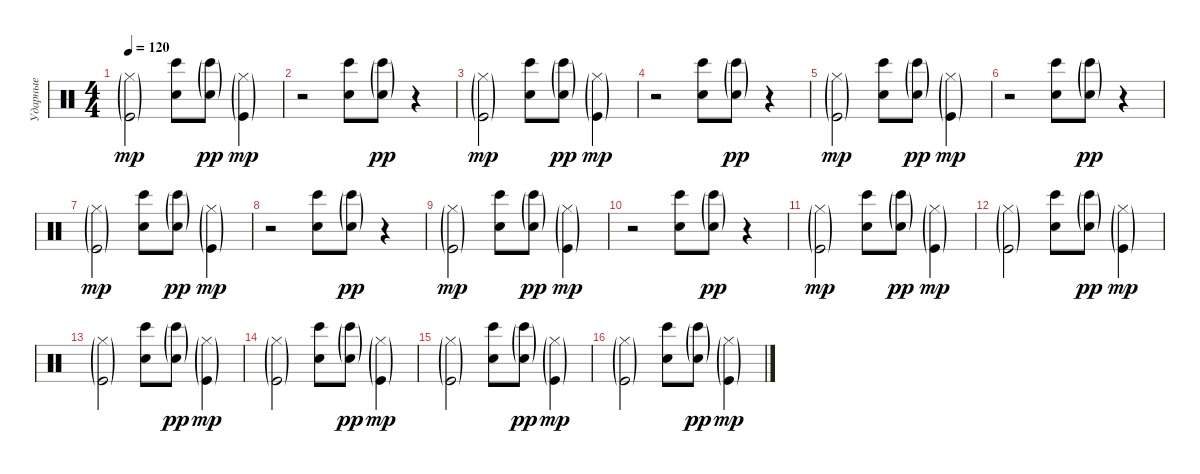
\track ("Ударные" "Ударные") {instrument percussion}
\staff {score}
\articulation defaults
\ts (4 4)
\tempo 120
\clef neutral
\ks c
("Kick (hit)"{g} "Hi-Hat (closed)"{g}).2{dy mp} ("Bongo High (hit)" "Hand Clap (hit)").8 ("Bongo High (hit)"{g} "Hand Clap (hit)"{g}).8{dy pp} ("Kick (hit)"{g} "Hi-Hat (closed)"{g}).4{dy mp} |
r.2 ("Bongo High (hit)" "Hand Clap (hit)").8 ("Bongo High (hit)"{g} "Hand Clap (hit)"{g}).8{dy pp} r.4 |
("Kick (hit)"{g} "Hi-Hat (closed)"{g}).2{dy mp} ("Bongo High (hit)" "Hand Clap (hit)").8 ("Bongo High (hit)"{g} "Hand Clap (hit)"{g}).8{dy pp} ("Kick (hit)"{g} "Hi-Hat (closed)"{g}).4{dy mp} |
r.2 ("Bongo High (hit)" "Hand Clap (hit)").8 ("Bongo High (hit)"{g} "Hand Clap (hit)"{g}).8{dy pp} r.4 |
("Kick (hit)"{g} "Hi-Hat (closed)"{g}).2{dy mp} ("Bongo High (hit)" "Hand Clap (hit)").8 ("Bongo High (hit)"{g} "Hand Clap (hit)"{g}).8{dy pp} ("Kick (hit)"{g} "Hi-Hat (closed)"{g}).4{dy mp} |
r.2 ("Bongo High (hit)" "Hand Clap (hit)").8 ("Bongo High (hit)"{g} "Hand Clap (hit)"{g}).8{dy pp} r.4 |
("Kick (hit)"{g} "Hi-Hat (closed)"{g}).2{dy mp} ("Bongo High (hit)" "Hand Clap (hit)").8 ("Bongo High (hit)"{g} "Hand Clap (hit)"{g}).8{dy pp} ("Kick (hit)"{g} "Hi-Hat (closed)"{g}).4{dy mp} |
r.2 ("Bongo High (hit)" "Hand Clap (hit)").8 ("Bongo High (hit)"{g} "Hand Clap (hit)"{g}).8{dy pp} r.4 |
("Kick (hit)"{g} "Hi-Hat (closed)"{g}).2{dy mp} ("Bongo High (hit)" "Hand Clap (hit)").8 ("Bongo High (hit)"{g} "Hand Clap (hit)"{g}).8{dy pp} ("Kick (hit)"{g} "Hi-Hat (closed)"{g}).4{dy mp} |
r.2 ("Bongo High (hit)" "Hand Clap (hit)").8 ("Bongo High (hit)"{g} "Hand Clap (hit)"{g}).8{dy pp} r.4 |
("Kick (hit)"{g} "Hi-Hat (closed)"{g}).2{dy mp} ("Bongo High (hit)" "Hand Clap (hit)").8 ("Bongo High (hit)"{g} "Hand Clap (hit)"{g}).8{dy pp} ("Kick (hit)"{g} "Hi-Hat (closed)"{g}).4{dy mp} |
("Kick (hit)"{g} "Hi-Hat (closed)"{g}).2 ("Bongo High (hit)" "Hand Clap (hit)").8 ("Bongo High (hit)"{g} "Hand Clap (hit)"{g}).8{dy pp} ("Kick (hit)"{g} "Hi-Hat (closed)"{g}).4{dy mp} |
("Kick (hit)"{g} "Hi-Hat (closed)"{g}).2 ("Bongo High (hit)" "Hand Clap (hit)").8 ("Bongo High (hit)"{g} "Hand Clap (hit)"{g}).8{dy pp} ("Kick (hit)"{g} "Hi-Hat (closed)"{g}).4{dy mp} |
("Kick (hit)"{g} "Hi-Hat (closed)"{g}).2 ("Bongo High (hit)" "Hand Clap (hit)").8 ("Bongo High (hit)"{g} "Hand Clap (hit)"{g}).8{dy pp} ("Kick (hit)"{g} "Hi-Hat (closed)"{g}).4{dy mp} |
("Kick (hit)"{g} "Hi-Hat (closed)"{g}).2 ("Bongo High (hit)" "Hand Clap (hit)").8 ("Bongo High (hit)"{g} "Hand Clap (hit)"{g}).8{dy pp} ("Kick (hit)"{g} "Hi-Hat (closed)"{g}).4{dy mp} |
("Kick (hit)"{g} "Hi-Hat (closed)"{g}).2 ("Bongo High (hit)" "Hand Clap (hit)").8 ("Bongo High (hit)"{g} "Hand Clap (hit)"{g}).8{dy pp} ("Kick (hit)"{g} "Hi-Hat (closed)"{g}).4{dy mp}
